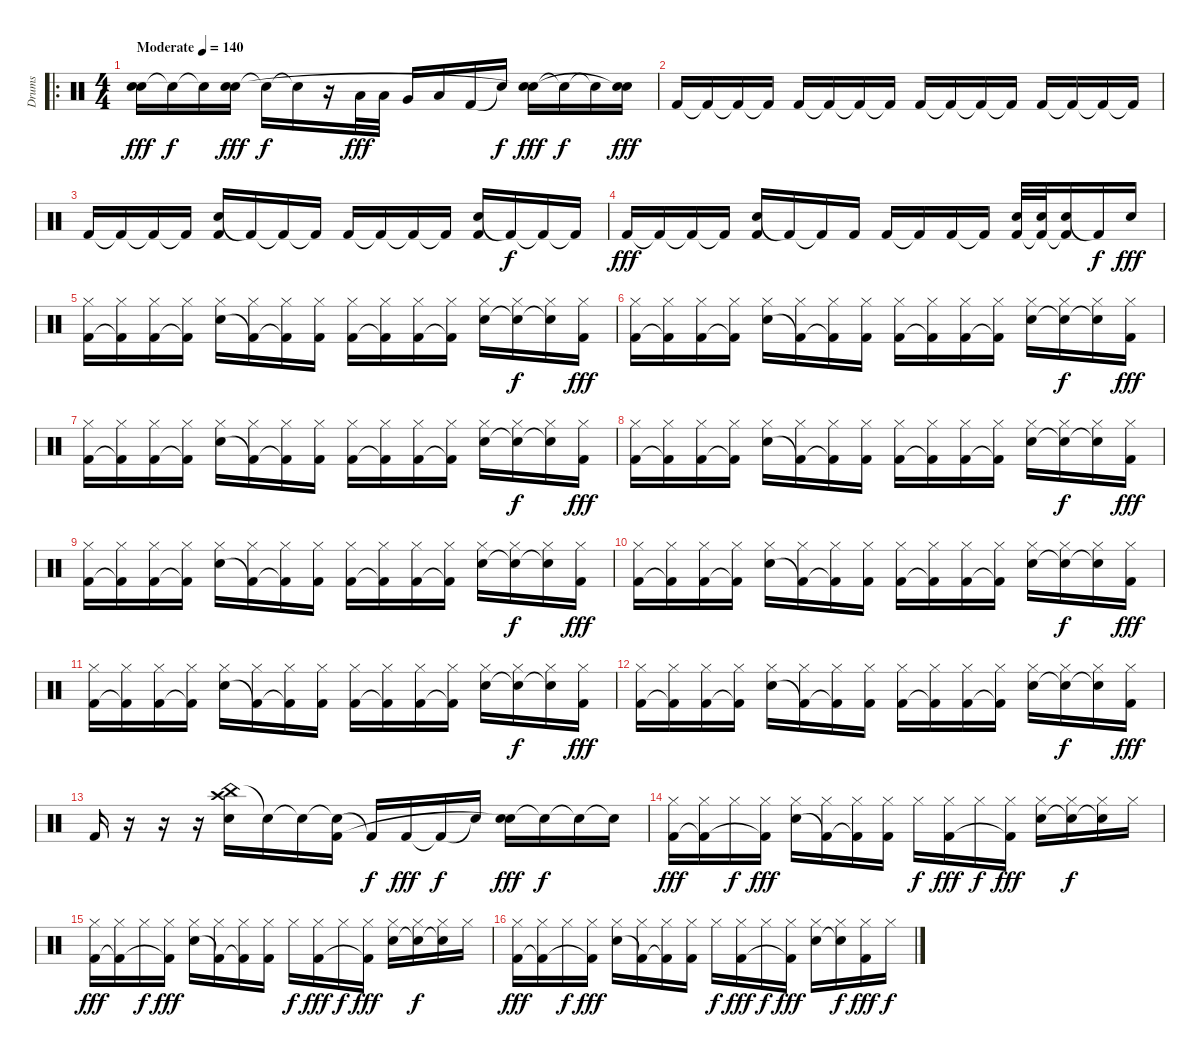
\track ("Drums" "Drums") {instrument percussion}
\staff {score}
\articulation defaults
\ro
\ts (4 4)
\tempo (140 "Moderate")
\clef neutral
\ks c
("Snare (hit) 2" "Electric Snare (hit)").16{dy fff} "Snare (hit)"{t}.16{dy f} "Snare (hit)"{t}.16 ("Snare (hit) 2" "Electric Snare (hit)").16{dy fff} "Snare (hit)"{t}.16{dy f} "Snare (hit)"{t}.16 r.16 "Low Tom (hit)".32{dy fff} "Low Tom (hit)".32 "Very Low Tom (hit)".16 "Low Floor Tom (hit)".16 "Kick (hit) 2".16 "Snare (hit)"{t}.16{dy f} ("Snare (hit) 2" "Snare (hit)"{t}).16{dy fff} "Snare (hit)"{t}.16{dy f} "Snare (hit)"{t}.16 ("Snare (hit) 2" "Snare (hit)"{t}).16{dy fff} |
"Kick (hit) 2".16 "Kick (hit) 2"{t}.16 "Kick (hit) 2"{t}.16 "Kick (hit) 2"{t}.16 "Kick (hit) 2".16 "Kick (hit) 2"{t}.16 "Kick (hit) 2"{t}.16 "Kick (hit) 2"{t}.16 "Kick (hit) 2".16 "Kick (hit) 2"{t}.16 "Kick (hit) 2"{t}.16 "Kick (hit) 2"{t}.16 "Kick (hit) 2".16 "Kick (hit) 2"{t}.16 "Kick (hit) 2"{t}.16 "Kick (hit) 2"{t}.16 |
"Kick (hit) 2".16 "Kick (hit) 2"{t}.16 "Kick (hit) 2"{t}.16 "Kick (hit) 2"{t}.16 ("Snare (hit) 2" "Kick (hit) 2").16 "Kick (hit) 2"{t}.16 "Kick (hit) 2"{t}.16 "Kick (hit) 2"{t}.16 "Kick (hit) 2".16 "Kick (hit) 2"{t}.16 "Kick (hit) 2"{t}.16 "Kick (hit) 2"{t}.16 ("Snare (hit) 2" "Kick (hit) 2").16 "Kick (hit) 2"{t}.16{dy f} "Kick (hit) 2"{t}.16 "Kick (hit) 2"{t}.16 |
"Kick (hit) 2".16{dy fff} "Kick (hit) 2"{t}.16 "Kick (hit) 2"{t}.16 "Kick (hit) 2"{t}.16 ("Snare (hit) 2" "Kick (hit) 2").16 "Kick (hit) 2"{t}.16 "Kick (hit) 2"{t}.16 "Kick (hit) 2".16 "Kick (hit) 2".16 "Kick (hit) 2"{t}.16 "Kick (hit) 2".16 "Kick (hit) 2"{t}.16 ("Snare (hit) 2" "Kick (hit) 2").32 ("Snare (hit) 2" "Kick (hit) 2"{t}).32 ("Snare (hit) 2" "Kick (hit) 2"{t}).16 "Kick (hit) 2"{t}.16{dy f} "Snare (hit) 2".16{dy fff} |
("Hi-Hat (closed)" "Kick (hit) 2").16 ("Hi-Hat (closed)" "Kick (hit) 2"{t}).16 ("Hi-Hat (closed)" "Kick (hit) 2").16 ("Hi-Hat (closed)" "Kick (hit) 2"{t}).16 ("Hi-Hat (closed)" "Snare (hit) 2").16 ("Hi-Hat (closed)" "Kick (hit) 2"{t}).16 ("Hi-Hat (closed)" "Kick (hit) 2"{t}).16 ("Hi-Hat (closed)" "Kick (hit) 2").16 ("Hi-Hat (closed)" "Kick (hit) 2").16 ("Hi-Hat (closed)" "Kick (hit) 2"{t}).16 ("Hi-Hat (closed)" "Kick (hit) 2").16 ("Hi-Hat (closed)" "Kick (hit) 2"{t}).16 ("Hi-Hat (closed)" "Snare (hit) 2").16 ("Hi-Hat (closed)" "Snare (hit)"{t}).16{dy f} ("Hi-Hat (closed)" "Snare (hit)"{t}).16 ("Hi-Hat (closed)" "Kick (hit) 2").16{dy fff} |
("Hi-Hat (closed)" "Kick (hit) 2").16 ("Hi-Hat (closed)" "Kick (hit) 2"{t}).16 ("Hi-Hat (closed)" "Kick (hit) 2").16 ("Hi-Hat (closed)" "Kick (hit) 2"{t}).16 ("Hi-Hat (closed)" "Snare (hit) 2").16 ("Hi-Hat (closed)" "Kick (hit) 2"{t}).16 ("Hi-Hat (closed)" "Kick (hit) 2"{t}).16 ("Hi-Hat (closed)" "Kick (hit) 2").16 ("Hi-Hat (closed)" "Kick (hit) 2").16 ("Hi-Hat (closed)" "Kick (hit) 2"{t}).16 ("Hi-Hat (closed)" "Kick (hit) 2").16 ("Hi-Hat (closed)" "Kick (hit) 2"{t}).16 ("Hi-Hat (closed)" "Snare (hit) 2").16 ("Hi-Hat (closed)" "Snare (hit)"{t}).16{dy f} ("Hi-Hat (closed)" "Snare (hit)"{t}).16 ("Hi-Hat (closed)" "Kick (hit) 2").16{dy fff} |
("Hi-Hat (closed)" "Kick (hit) 2").16 ("Hi-Hat (closed)" "Kick (hit) 2"{t}).16 ("Hi-Hat (closed)" "Kick (hit) 2").16 ("Hi-Hat (closed)" "Kick (hit) 2"{t}).16 ("Hi-Hat (closed)" "Snare (hit) 2").16 ("Hi-Hat (closed)" "Kick (hit) 2"{t}).16 ("Hi-Hat (closed)" "Kick (hit) 2"{t}).16 ("Hi-Hat (closed)" "Kick (hit) 2").16 ("Hi-Hat (closed)" "Kick (hit) 2").16 ("Hi-Hat (closed)" "Kick (hit) 2"{t}).16 ("Hi-Hat (closed)" "Kick (hit) 2").16 ("Hi-Hat (closed)" "Kick (hit) 2"{t}).16 ("Hi-Hat (closed)" "Snare (hit) 2").16 ("Hi-Hat (closed)" "Snare (hit)"{t}).16{dy f} ("Hi-Hat (closed)" "Snare (hit)"{t}).16 ("Hi-Hat (closed)" "Kick (hit) 2").16{dy fff} |
("Hi-Hat (closed)" "Kick (hit) 2").16 ("Hi-Hat (closed)" "Kick (hit) 2"{t}).16 ("Hi-Hat (closed)" "Kick (hit) 2").16 ("Hi-Hat (closed)" "Kick (hit) 2"{t}).16 ("Hi-Hat (closed)" "Snare (hit) 2").16 ("Hi-Hat (closed)" "Kick (hit) 2"{t}).16 ("Hi-Hat (closed)" "Kick (hit) 2"{t}).16 ("Hi-Hat (closed)" "Kick (hit) 2").16 ("Hi-Hat (closed)" "Kick (hit) 2").16 ("Hi-Hat (closed)" "Kick (hit) 2"{t}).16 ("Hi-Hat (closed)" "Kick (hit) 2").16 ("Hi-Hat (closed)" "Kick (hit) 2"{t}).16 ("Hi-Hat (closed)" "Snare (hit) 2").16 ("Hi-Hat (closed)" "Snare (hit)"{t}).16{dy f} ("Hi-Hat (closed)" "Snare (hit)"{t}).16 ("Hi-Hat (closed)" "Kick (hit) 2").16{dy fff} |
("Hi-Hat (closed)" "Kick (hit) 2").16 ("Hi-Hat (closed)" "Kick (hit) 2"{t}).16 ("Hi-Hat (closed)" "Kick (hit) 2").16 ("Hi-Hat (closed)" "Kick (hit) 2"{t}).16 ("Hi-Hat (closed)" "Snare (hit) 2").16 ("Hi-Hat (closed)" "Kick (hit) 2"{t}).16 ("Hi-Hat (closed)" "Kick (hit) 2"{t}).16 ("Hi-Hat (closed)" "Kick (hit) 2").16 ("Hi-Hat (closed)" "Kick (hit) 2").16 ("Hi-Hat (closed)" "Kick (hit) 2"{t}).16 ("Hi-Hat (closed)" "Kick (hit) 2").16 ("Hi-Hat (closed)" "Kick (hit) 2"{t}).16 ("Hi-Hat (closed)" "Snare (hit) 2").16 ("Hi-Hat (closed)" "Snare (hit)"{t}).16{dy f} ("Hi-Hat (closed)" "Snare (hit)"{t}).16 ("Hi-Hat (closed)" "Kick (hit) 2").16{dy fff} |
("Hi-Hat (closed)" "Kick (hit) 2").16 ("Hi-Hat (closed)" "Kick (hit) 2"{t}).16 ("Hi-Hat (closed)" "Kick (hit) 2").16 ("Hi-Hat (closed)" "Kick (hit) 2"{t}).16 ("Hi-Hat (closed)" "Snare (hit) 2").16 ("Hi-Hat (closed)" "Kick (hit) 2"{t}).16 ("Hi-Hat (closed)" "Kick (hit) 2"{t}).16 ("Hi-Hat (closed)" "Kick (hit) 2").16 ("Hi-Hat (closed)" "Kick (hit) 2").16 ("Hi-Hat (closed)" "Kick (hit) 2"{t}).16 ("Hi-Hat (closed)" "Kick (hit) 2").16 ("Hi-Hat (closed)" "Kick (hit) 2"{t}).16 ("Hi-Hat (closed)" "Snare (hit) 2").16 ("Hi-Hat (closed)" "Snare (hit)"{t}).16{dy f} ("Hi-Hat (closed)" "Snare (hit)"{t}).16 ("Hi-Hat (closed)" "Kick (hit) 2").16{dy fff} |
("Hi-Hat (closed)" "Kick (hit) 2").16 ("Hi-Hat (closed)" "Kick (hit) 2"{t}).16 ("Hi-Hat (closed)" "Kick (hit) 2").16 ("Hi-Hat (closed)" "Kick (hit) 2"{t}).16 ("Hi-Hat (closed)" "Snare (hit) 2").16 ("Hi-Hat (closed)" "Kick (hit) 2"{t}).16 ("Hi-Hat (closed)" "Kick (hit) 2"{t}).16 ("Hi-Hat (closed)" "Kick (hit) 2").16 ("Hi-Hat (closed)" "Kick (hit) 2").16 ("Hi-Hat (closed)" "Kick (hit) 2"{t}).16 ("Hi-Hat (closed)" "Kick (hit) 2").16 ("Hi-Hat (closed)" "Kick (hit) 2"{t}).16 ("Hi-Hat (closed)" "Snare (hit) 2").16 ("Hi-Hat (closed)" "Snare (hit)"{t}).16{dy f} ("Hi-Hat (closed)" "Snare (hit)"{t}).16 ("Hi-Hat (closed)" "Kick (hit) 2").16{dy fff} |
("Hi-Hat (closed)" "Kick (hit) 2").16 ("Hi-Hat (closed)" "Kick (hit) 2"{t}).16 ("Hi-Hat (closed)" "Kick (hit) 2").16 ("Hi-Hat (closed)" "Kick (hit) 2"{t}).16 ("Hi-Hat (closed)" "Snare (hit) 2").16 ("Hi-Hat (closed)" "Kick (hit) 2"{t}).16 ("Hi-Hat (closed)" "Kick (hit) 2"{t}).16 ("Hi-Hat (closed)" "Kick (hit) 2").16 ("Hi-Hat (closed)" "Kick (hit) 2").16 ("Hi-Hat (closed)" "Kick (hit) 2"{t}).16 ("Hi-Hat (closed)" "Kick (hit) 2").16 ("Hi-Hat (closed)" "Kick (hit) 2"{t}).16 ("Hi-Hat (closed)" "Snare (hit) 2").16 ("Hi-Hat (closed)" "Snare (hit)"{t}).16{dy f} ("Hi-Hat (closed)" "Snare (hit)"{t}).16 ("Hi-Hat (closed)" "Kick (hit) 2").16{dy fff} |
"Kick (hit) 2".16 r.16 r.16 r.16 ("China (hit)" "Crash high (hit)" "Snare (hit) 2").16 "Snare (hit)"{t}.16 "Snare (hit)"{t}.16 ("Snare (hit)"{t} "Kick (hit) 2").16 "Kick (hit) 2"{t}.16{dy f} "Kick (hit) 2".16{dy fff} "Kick (hit) 2"{t}.16{dy f} "Snare (hit)"{t}.16 ("Snare (hit) 2" "Snare (hit)"{t}).16{dy fff} "Snare (hit)"{t}.16{dy f} "Snare (hit)"{t}.16 "Snare (hit)"{t}.16 |
("Hi-Hat (closed)" "Kick (hit) 2").16{dy fff} ("Hi-Hat (closed)" "Kick (hit) 2"{t}).16 "Hi-Hat (closed)".16{dy f} ("Hi-Hat (closed)" "Kick (hit) 2"{t}).16{dy fff} ("Hi-Hat (closed)" "Snare (hit) 2").16 ("Hi-Hat (closed)" "Kick (hit) 2"{t}).16 ("Hi-Hat (closed)" "Kick (hit) 2"{t}).16 ("Hi-Hat (closed)" "Kick (hit) 2").16 "Hi-Hat (closed)".16{dy f} ("Hi-Hat (closed)" "Kick (hit) 2").16{dy fff} "Hi-Hat (closed)".16{dy f} ("Hi-Hat (closed)" "Kick (hit) 2"{t}).16{dy fff} ("Hi-Hat (closed)" "Snare (hit) 2").16 ("Hi-Hat (closed)" "Snare (hit)"{t}).16{dy f} ("Hi-Hat (closed)" "Snare (hit)"{t}).16 "Hi-Hat (closed)".16 |
("Hi-Hat (closed)" "Kick (hit) 2").16{dy fff} ("Hi-Hat (closed)" "Kick (hit) 2"{t}).16 "Hi-Hat (closed)".16{dy f} ("Hi-Hat (closed)" "Kick (hit) 2"{t}).16{dy fff} ("Hi-Hat (closed)" "Snare (hit) 2").16 ("Hi-Hat (closed)" "Kick (hit) 2"{t}).16 ("Hi-Hat (closed)" "Kick (hit) 2"{t}).16 ("Hi-Hat (closed)" "Kick (hit) 2").16 "Hi-Hat (closed)".16{dy f} ("Hi-Hat (closed)" "Kick (hit) 2").16{dy fff} "Hi-Hat (closed)".16{dy f} ("Hi-Hat (closed)" "Kick (hit) 2"{t}).16{dy fff} ("Hi-Hat (closed)" "Snare (hit) 2").16 ("Hi-Hat (closed)" "Snare (hit)"{t}).16{dy f} ("Hi-Hat (closed)" "Snare (hit)"{t}).16 "Hi-Hat (closed)".16 |
("Hi-Hat (closed)" "Kick (hit) 2").16{dy fff} ("Hi-Hat (closed)" "Kick (hit) 2"{t}).16 "Hi-Hat (closed)".16{dy f} ("Hi-Hat (closed)" "Kick (hit) 2"{t}).16{dy fff} ("Hi-Hat (closed)" "Snare (hit) 2").16 ("Hi-Hat (closed)" "Kick (hit) 2"{t}).16 ("Hi-Hat (closed)" "Kick (hit) 2"{t}).16 ("Hi-Hat (closed)" "Kick (hit) 2").16 "Hi-Hat (closed)".16{dy f} ("Hi-Hat (closed)" "Kick (hit) 2").16{dy fff} "Hi-Hat (closed)".16{dy f} ("Hi-Hat (closed)" "Kick (hit) 2"{t}).16{dy fff} ("Hi-Hat (closed)" "Snare (hit) 2").16 ("Hi-Hat (closed)" "Snare (hit)"{t}).16{dy f} ("Hi-Hat (closed)" "Kick (hit) 2").16{dy fff} "Hi-Hat (closed)".16{dy f}
